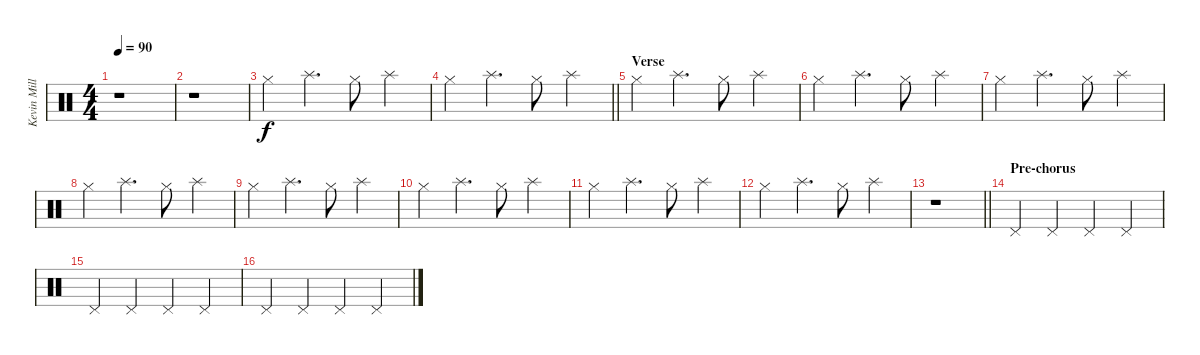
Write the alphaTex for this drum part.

\track ("Kevin Miller (Drums)" "Kevin Mill") {instrument percussion}
\staff {score}
\articulation defaults
\ts (4 4)
\tempo 90
\clef neutral
\ks c
r.1{dy f} |
r.1 |
"Hi-Hat (closed)".4 "Splash (hit)".4{d} "Hi-Hat (closed)".8 "Splash (hit)".4 |
\barLineRight lightlight "Hi-Hat (closed)".4 "Splash (hit)".4{d} "Hi-Hat (closed)".8 "Splash (hit)".4
|
\section ("" "Verse")
"Hi-Hat (closed)".4 "Splash (hit)".4{d} "Hi-Hat (closed)".8 "Splash (hit)".4 |
"Hi-Hat (closed)".4 "Splash (hit)".4{d} "Hi-Hat (closed)".8 "Splash (hit)".4 |
"Hi-Hat (closed)".4 "Splash (hit)".4{d} "Hi-Hat (closed)".8 "Splash (hit)".4 |
"Hi-Hat (closed)".4 "Splash (hit)".4{d} "Hi-Hat (closed)".8 "Splash (hit)".4 |
"Hi-Hat (closed)".4 "Splash (hit)".4{d} "Hi-Hat (closed)".8 "Splash (hit)".4 |
"Hi-Hat (closed)".4 "Splash (hit)".4{d} "Hi-Hat (closed)".8 "Splash (hit)".4 |
"Hi-Hat (closed)".4 "Splash (hit)".4{d} "Hi-Hat (closed)".8 "Splash (hit)".4 |
"Hi-Hat (closed)".4 "Splash (hit)".4{d} "Hi-Hat (closed)".8 "Splash (hit)".4 |
\barLineRight lightlight
r.1 |
\section ("" "Pre-chorus")
"Pedal Hi-Hat (hit)".4 "Pedal Hi-Hat (hit)".4 "Pedal Hi-Hat (hit)".4 "Pedal Hi-Hat (hit)".4 |
"Pedal Hi-Hat (hit)".4 "Pedal Hi-Hat (hit)".4 "Pedal Hi-Hat (hit)".4 "Pedal Hi-Hat (hit)".4 |
"Pedal Hi-Hat (hit)".4 "Pedal Hi-Hat (hit)".4 "Pedal Hi-Hat (hit)".4 "Pedal Hi-Hat (hit)".4
